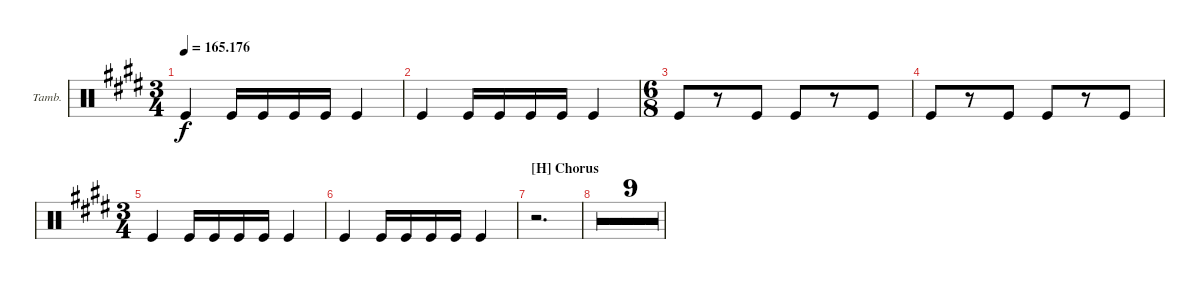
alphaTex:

\defaultSystemsLayout 4
\bracketExtendMode groupsimilarinstruments
\firstSystemTrackNameOrientation horizontal
\otherSystemsTrackNameOrientation horizontal
\track ("Tambourine" "Tamb.") {multiBarRest instrument percussion}
\staff {score}
\articulation defaults
\ts (3 4)
\tempo
165.176
\accidentals auto
\clef neutral
\ottava regular
\simile none
\ks e "Kick (hit)".4{dy f} "Kick (hit)".16 "Kick (hit)".16 "Kick (hit)".16 "Kick (hit)".16 "Kick (hit)".4
|
"Kick (hit)".4 "Kick (hit)".16 "Kick (hit)".16 "Kick (hit)".16 "Kick (hit)".16 "Kick (hit)".4 |
\ts (6 8)
"Kick (hit)".8 r.8 "Kick (hit)".8 "Kick (hit)".8 r.8 "Kick (hit)".8 |
"Kick (hit)".8 r.8 "Kick (hit)".8 "Kick (hit)".8 r.8 "Kick (hit)".8 |
\ts (3 4)
"Kick (hit)".4 "Kick (hit)".16 "Kick (hit)".16 "Kick (hit)".16 "Kick (hit)".16 "Kick (hit)".4 |
"Kick (hit)".4 "Kick (hit)".16 "Kick (hit)".16 "Kick (hit)".16 "Kick (hit)".16 "Kick (hit)".4 |
\section ("H" "Chorus")
r.2{d} |
r.2{d} |
r.2{d} |
r.2{d} |
r.2{d} |
r.2{d} |
r.2{d} |
r.2{d} |
r.2{d} |
r.2{d}
